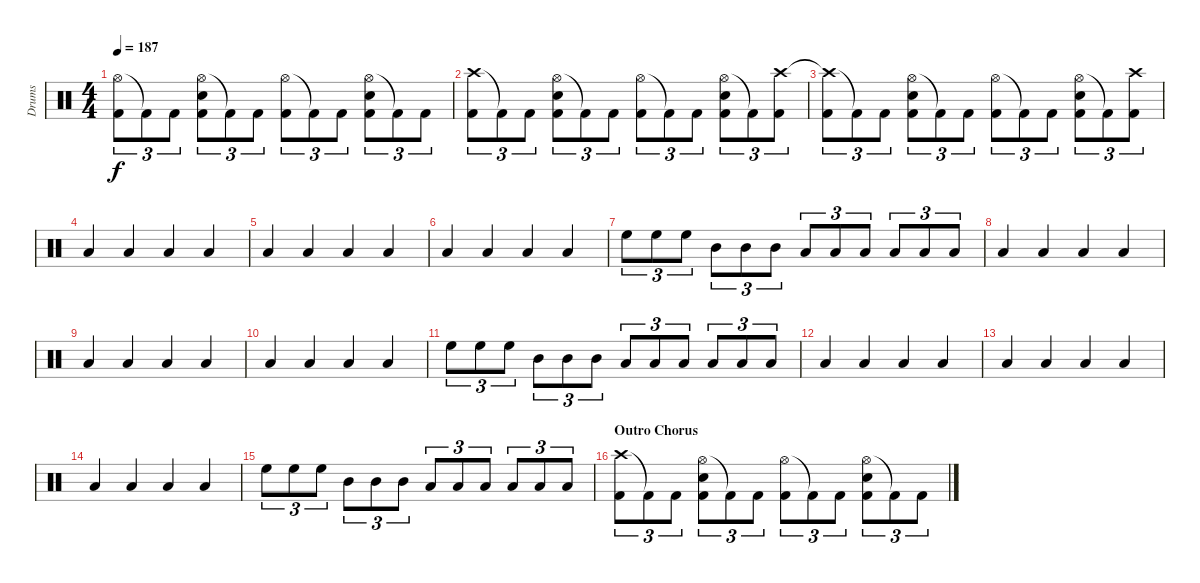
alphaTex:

\track ("Drums" "Drums") {instrument percussion}
\staff {score}
\articulation defaults
\ts (4 4)
\tempo 187
\clef neutral
\ks c
("Hi-Hat (open)" "Kick (hit) 2").8{tu (3 2) dy f} "Kick (hit) 2"{t}.8{tu (3 2)} "Kick (hit) 2".8{tu (3 2)} ("Hi-Hat (open)" "Snare (hit) 2" "Kick (hit) 2").8{tu (3 2)} "Kick (hit) 2"{t}.8{tu (3 2)} "Kick (hit) 2".8{tu (3 2)} ("Hi-Hat (open)" "Kick (hit) 2").8{tu (3 2)} "Kick (hit) 2"{t}.8{tu (3 2)} "Kick (hit) 2".8{tu (3 2)} ("Hi-Hat (open)" "Snare (hit) 2" "Kick (hit) 2").8{tu (3 2)} "Kick (hit) 2"{t}.8{tu (3 2)} "Kick (hit) 2".8{tu (3 2)} |
("Crash high (hit)" "Kick (hit) 2").8{tu (3 2)} "Kick (hit) 2"{t}.8{tu (3 2)} "Kick (hit) 2".8{tu (3 2)} ("Hi-Hat (open)" "Snare (hit) 2" "Kick (hit) 2").8{tu (3 2)} "Kick (hit) 2"{t}.8{tu (3 2)} "Kick (hit) 2".8{tu (3 2)} ("Hi-Hat (open)" "Kick (hit) 2").8{tu (3 2)} "Kick (hit) 2"{t}.8{tu (3 2)} "Kick (hit) 2".8{tu (3 2)} ("Hi-Hat (open)" "Snare (hit) 2" "Kick (hit) 2").8{tu (3 2)} "Kick (hit) 2"{t}.8{tu (3 2)} ("Crash high (hit)" "Kick (hit) 2").8{tu (3 2)} |
("Crash high (hit)"{t} "Kick (hit) 2").8{tu (3 2)} "Kick (hit) 2"{t}.8{tu (3 2)} "Kick (hit) 2".8{tu (3 2)} ("Hi-Hat (open)" "Snare (hit) 2" "Kick (hit) 2").8{tu (3 2)} "Kick (hit) 2"{t}.8{tu (3 2)} "Kick (hit) 2".8{tu (3 2)} ("Hi-Hat (open)" "Kick (hit) 2").8{tu (3 2)} "Kick (hit) 2"{t}.8{tu (3 2)} "Kick (hit) 2".8{tu (3 2)} ("Hi-Hat (open)" "Snare (hit) 2" "Kick (hit) 2").8{tu (3 2)} "Kick (hit) 2"{t}.8{tu (3 2)} ("Crash high (hit)" "Kick (hit) 2").8{tu (3 2)} |
"Low Floor Tom (hit)".4 "Low Floor Tom (hit)".4 "Low Floor Tom (hit)".4 "Low Floor Tom (hit)".4 |
"Low Floor Tom (hit)".4 "Low Floor Tom (hit)".4 "Low Floor Tom (hit)".4 "Low Floor Tom (hit)".4 |
"Low Floor Tom (hit)".4 "Low Floor Tom (hit)".4 "Low Floor Tom (hit)".4 "Low Floor Tom (hit)".4 |
"High Floor Tom (hit)".8{tu (3 2)} "High Floor Tom (hit)".8{tu (3 2)} "High Floor Tom (hit)".8{tu (3 2)} "Mid Tom (hit)".8{tu (3 2)} "Mid Tom (hit)".8{tu (3 2)} "Mid Tom (hit)".8{tu (3 2)} "Low Tom (hit)".8{tu (3 2)} "Low Tom (hit)".8{tu (3 2)} "Low Tom (hit)".8{tu (3 2)} "Low Floor Tom (hit)".8{tu (3 2)} "Low Floor Tom (hit)".8{tu (3 2)} "Low Floor Tom (hit)".8{tu (3 2)} |
"Low Floor Tom (hit)".4 "Low Floor Tom (hit)".4 "Low Floor Tom (hit)".4 "Low Floor Tom (hit)".4 |
"Low Floor Tom (hit)".4 "Low Floor Tom (hit)".4 "Low Floor Tom (hit)".4 "Low Floor Tom (hit)".4 |
"Low Floor Tom (hit)".4 "Low Floor Tom (hit)".4 "Low Floor Tom (hit)".4 "Low Floor Tom (hit)".4 |
"High Floor Tom (hit)".8{tu (3 2)} "High Floor Tom (hit)".8{tu (3 2)} "High Floor Tom (hit)".8{tu (3 2)} "Mid Tom (hit)".8{tu (3 2)} "Mid Tom (hit)".8{tu (3 2)} "Mid Tom (hit)".8{tu (3 2)} "Low Tom (hit)".8{tu (3 2)} "Low Tom (hit)".8{tu (3 2)} "Low Tom (hit)".8{tu (3 2)} "Low Floor Tom (hit)".8{tu (3 2)} "Low Floor Tom (hit)".8{tu (3 2)} "Low Floor Tom (hit)".8{tu (3 2)} |
"Low Floor Tom (hit)".4 "Low Floor Tom (hit)".4 "Low Floor Tom (hit)".4 "Low Floor Tom (hit)".4 |
"Low Floor Tom (hit)".4 "Low Floor Tom (hit)".4 "Low Floor Tom (hit)".4 "Low Floor Tom (hit)".4 |
"Low Floor Tom (hit)".4 "Low Floor Tom (hit)".4 "Low Floor Tom (hit)".4 "Low Floor Tom (hit)".4 |
"High Floor Tom (hit)".8{tu (3 2)} "High Floor Tom (hit)".8{tu (3 2)} "High Floor Tom (hit)".8{tu (3 2)} "Mid Tom (hit)".8{tu (3 2)} "Mid Tom (hit)".8{tu (3 2)} "Mid Tom (hit)".8{tu (3 2)} "Low Tom (hit)".8{tu (3 2)} "Low Tom (hit)".8{tu (3 2)} "Low Tom (hit)".8{tu (3 2)} "Low Floor Tom (hit)".8{tu (3 2)} "Low Floor Tom (hit)".8{tu (3 2)} "Low Floor Tom (hit)".8{tu (3 2)} |
\section ("" "Outro Chorus")
("Crash high (hit)" "Kick (hit) 2").8{tu (3 2)} "Kick (hit) 2"{t}.8{tu (3 2)} "Kick (hit) 2".8{tu (3 2)} ("Hi-Hat (open)" "Snare (hit) 2" "Kick (hit) 2").8{tu (3 2)} "Kick (hit) 2"{t}.8{tu (3 2)} "Kick (hit) 2".8{tu (3 2)} ("Hi-Hat (open)" "Kick (hit) 2").8{tu (3 2)} "Kick (hit) 2"{t}.8{tu (3 2)} "Kick (hit) 2".8{tu (3 2)} ("Hi-Hat (open)" "Snare (hit) 2" "Kick (hit) 2").8{tu (3 2)} "Kick (hit) 2"{t}.8{tu (3 2)} "Kick (hit) 2".8{tu (3 2)}
